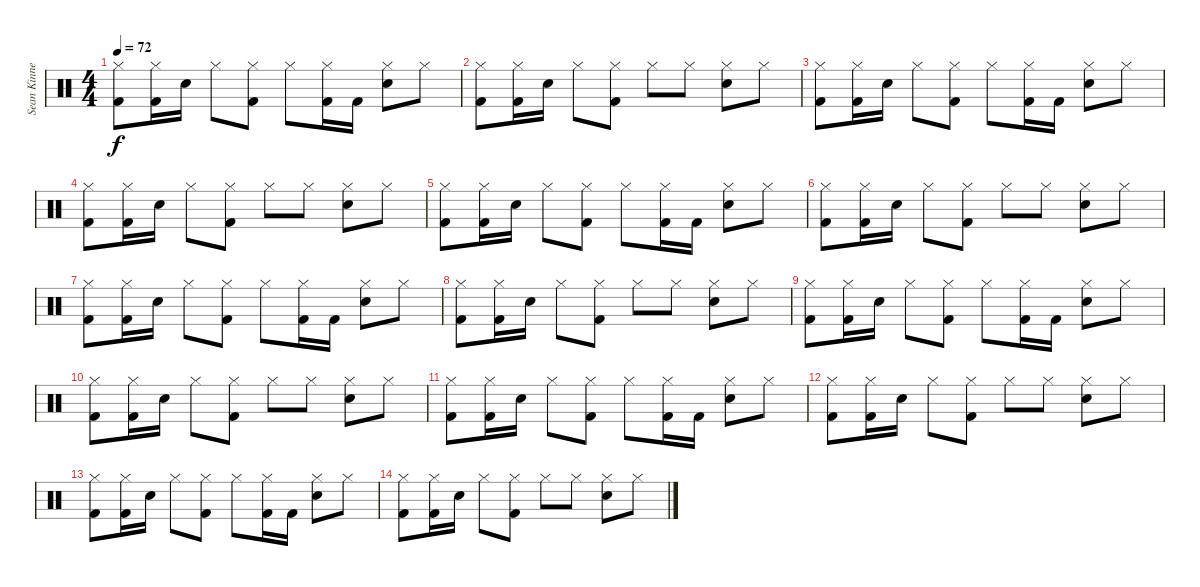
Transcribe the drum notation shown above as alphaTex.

\track ("Sean Kinney - Drums" "Sean Kinne") {instrument percussion}
\staff {score}
\articulation defaults
\ts (4 4)
\tempo 72
\clef neutral
\ks c
("Hi-Hat (closed)" "Kick (hit) 2").8{dy f} ("Hi-Hat (closed)" "Kick (hit) 2").16 "Electric Snare (hit)".16 "Hi-Hat (closed)".8 ("Hi-Hat (closed)" "Kick (hit) 2").8 "Hi-Hat (closed)".8 ("Hi-Hat (closed)" "Kick (hit) 2").16 "Kick (hit) 2".16 ("Hi-Hat (closed)" "Electric Snare (hit)").8 "Hi-Hat (closed)".8 |
("Hi-Hat (closed)" "Kick (hit) 2").8 ("Hi-Hat (closed)" "Kick (hit) 2").16 "Electric Snare (hit)".16 "Hi-Hat (closed)".8 ("Hi-Hat (closed)" "Kick (hit) 2").8 "Hi-Hat (closed)".8 "Hi-Hat (closed)".8 ("Hi-Hat (closed)" "Electric Snare (hit)").8 "Hi-Hat (closed)".8 |
("Hi-Hat (closed)" "Kick (hit) 2").8 ("Hi-Hat (closed)" "Kick (hit) 2").16 "Electric Snare (hit)".16 "Hi-Hat (closed)".8 ("Hi-Hat (closed)" "Kick (hit) 2").8 "Hi-Hat (closed)".8 ("Hi-Hat (closed)" "Kick (hit) 2").16 "Kick (hit) 2".16 ("Hi-Hat (closed)" "Electric Snare (hit)").8 "Hi-Hat (closed)".8 |
("Hi-Hat (closed)" "Kick (hit) 2").8 ("Hi-Hat (closed)" "Kick (hit) 2").16 "Electric Snare (hit)".16 "Hi-Hat (closed)".8 ("Hi-Hat (closed)" "Kick (hit) 2").8 "Hi-Hat (closed)".8 "Hi-Hat (closed)".8 ("Hi-Hat (closed)" "Electric Snare (hit)").8 "Hi-Hat (closed)".8 |
("Hi-Hat (closed)" "Kick (hit) 2").8 ("Hi-Hat (closed)" "Kick (hit) 2").16 "Electric Snare (hit)".16 "Hi-Hat (closed)".8 ("Hi-Hat (closed)" "Kick (hit) 2").8 "Hi-Hat (closed)".8 ("Hi-Hat (closed)" "Kick (hit) 2").16 "Kick (hit) 2".16 ("Hi-Hat (closed)" "Electric Snare (hit)").8 "Hi-Hat (closed)".8 |
("Hi-Hat (closed)" "Kick (hit) 2").8 ("Hi-Hat (closed)" "Kick (hit) 2").16 "Electric Snare (hit)".16 "Hi-Hat (closed)".8 ("Hi-Hat (closed)" "Kick (hit) 2").8 "Hi-Hat (closed)".8 "Hi-Hat (closed)".8 ("Hi-Hat (closed)" "Electric Snare (hit)").8 "Hi-Hat (closed)".8 |
("Hi-Hat (closed)" "Kick (hit) 2").8 ("Hi-Hat (closed)" "Kick (hit) 2").16 "Electric Snare (hit)".16 "Hi-Hat (closed)".8 ("Hi-Hat (closed)" "Kick (hit) 2").8 "Hi-Hat (closed)".8 ("Hi-Hat (closed)" "Kick (hit) 2").16 "Kick (hit) 2".16 ("Hi-Hat (closed)" "Electric Snare (hit)").8 "Hi-Hat (closed)".8 |
("Hi-Hat (closed)" "Kick (hit) 2").8 ("Hi-Hat (closed)" "Kick (hit) 2").16 "Electric Snare (hit)".16 "Hi-Hat (closed)".8 ("Hi-Hat (closed)" "Kick (hit) 2").8 "Hi-Hat (closed)".8 "Hi-Hat (closed)".8 ("Hi-Hat (closed)" "Electric Snare (hit)").8 "Hi-Hat (closed)".8 |
("Hi-Hat (closed)" "Kick (hit) 2").8 ("Hi-Hat (closed)" "Kick (hit) 2").16 "Electric Snare (hit)".16 "Hi-Hat (closed)".8 ("Hi-Hat (closed)" "Kick (hit) 2").8 "Hi-Hat (closed)".8 ("Hi-Hat (closed)" "Kick (hit) 2").16 "Kick (hit) 2".16 ("Hi-Hat (closed)" "Electric Snare (hit)").8 "Hi-Hat (closed)".8 |
("Hi-Hat (closed)" "Kick (hit) 2").8 ("Hi-Hat (closed)" "Kick (hit) 2").16 "Electric Snare (hit)".16 "Hi-Hat (closed)".8 ("Hi-Hat (closed)" "Kick (hit) 2").8 "Hi-Hat (closed)".8 "Hi-Hat (closed)".8 ("Hi-Hat (closed)" "Electric Snare (hit)").8 "Hi-Hat (closed)".8 |
("Hi-Hat (closed)" "Kick (hit) 2").8{volume 8} ("Hi-Hat (closed)" "Kick (hit) 2").16 "Electric Snare (hit)".16 "Hi-Hat (closed)".8 ("Hi-Hat (closed)" "Kick (hit) 2").8 "Hi-Hat (closed)".8 ("Hi-Hat (closed)" "Kick (hit) 2").16 "Kick (hit) 2".16 ("Hi-Hat (closed)" "Electric Snare (hit)").8 "Hi-Hat (closed)".8 |
("Hi-Hat (closed)" "Kick (hit) 2").8 ("Hi-Hat (closed)" "Kick (hit) 2").16 "Electric Snare (hit)".16 "Hi-Hat (closed)".8 ("Hi-Hat (closed)" "Kick (hit) 2").8 "Hi-Hat (closed)".8 "Hi-Hat (closed)".8 ("Hi-Hat (closed)" "Electric Snare (hit)").8 "Hi-Hat (closed)".8 |
("Hi-Hat (closed)" "Kick (hit) 2").8{volume 0} ("Hi-Hat (closed)" "Kick (hit) 2").16 "Electric Snare (hit)".16 "Hi-Hat (closed)".8 ("Hi-Hat (closed)" "Kick (hit) 2").8 "Hi-Hat (closed)".8 ("Hi-Hat (closed)" "Kick (hit) 2").16 "Kick (hit) 2".16 ("Hi-Hat (closed)" "Electric Snare (hit)").8 "Hi-Hat (closed)".8 |
("Hi-Hat (closed)" "Kick (hit) 2").8 ("Hi-Hat (closed)" "Kick (hit) 2").16 "Electric Snare (hit)".16 "Hi-Hat (closed)".8 ("Hi-Hat (closed)" "Kick (hit) 2").8 "Hi-Hat (closed)".8 "Hi-Hat (closed)".8 ("Hi-Hat (closed)" "Electric Snare (hit)").8 "Hi-Hat (closed)".8
